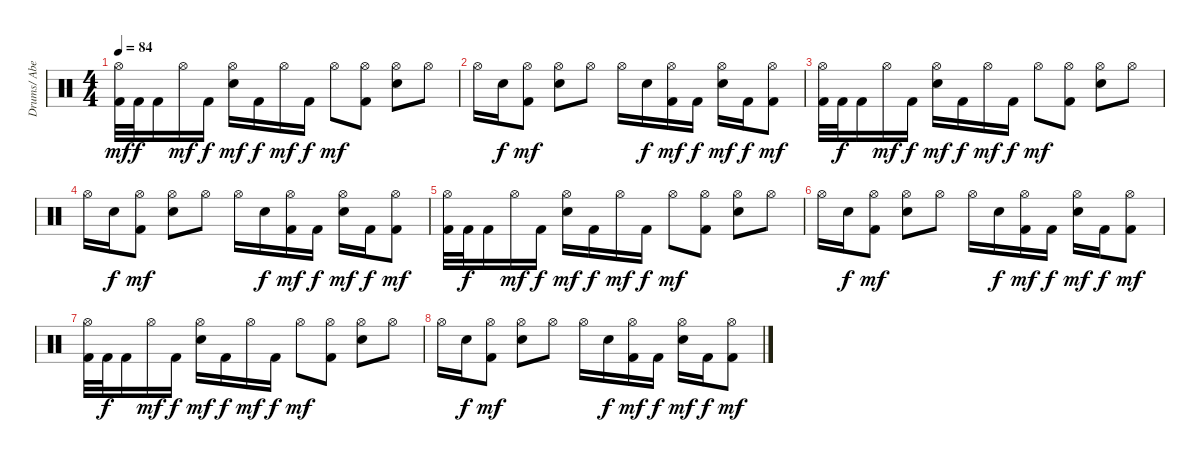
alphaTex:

\track ("Drums/ Abe Cunningham" "Drums/ Abe") {instrument percussion}
\staff {score}
\articulation defaults
\ts (4 4)
\tempo 84
\clef neutral
\ks c
("Hi-Hat (open)" "Kick (hit) 2").32{dy mf volume 10} "Kick (hit) 2".32{dy f} "Kick (hit) 2".16 "Hi-Hat (open)".16{dy mf} "Kick (hit) 2".16{dy f} ("Hi-Hat (open)" "Electric Snare (hit)").16{dy mf} "Kick (hit) 2".16{dy f} "Hi-Hat (open)".16{dy mf} "Kick (hit) 2".16{dy f} "Hi-Hat (open)".8{dy mf} ("Hi-Hat (open)" "Kick (hit) 2").8 ("Hi-Hat (open)" "Electric Snare (hit)").8 "Hi-Hat (open)".8 |
"Hi-Hat (open)".16 "Electric Snare (hit)".16{dy f} ("Hi-Hat (open)" "Kick (hit) 2").8{dy mf} ("Hi-Hat (open)" "Electric Snare (hit)").8 "Hi-Hat (open)".8 "Hi-Hat (open)".16 "Electric Snare (hit)".16{dy f} ("Hi-Hat (open)" "Kick (hit) 2").16{dy mf} "Kick (hit) 2".16{dy f} ("Hi-Hat (open)" "Electric Snare (hit)").16{dy mf} "Kick (hit) 2".16{dy f} ("Hi-Hat (open)" "Kick (hit) 2").8{dy mf} |
("Hi-Hat (open)" "Kick (hit) 2").32{volume 6} "Kick (hit) 2".32{dy f} "Kick (hit) 2".16 "Hi-Hat (open)".16{dy mf} "Kick (hit) 2".16{dy f} ("Hi-Hat (open)" "Electric Snare (hit)").16{dy mf} "Kick (hit) 2".16{dy f} "Hi-Hat (open)".16{dy mf} "Kick (hit) 2".16{dy f} "Hi-Hat (open)".8{dy mf} ("Hi-Hat (open)" "Kick (hit) 2").8 ("Hi-Hat (open)" "Electric Snare (hit)").8 "Hi-Hat (open)".8 |
"Hi-Hat (open)".16 "Electric Snare (hit)".16{dy f} ("Hi-Hat (open)" "Kick (hit) 2").8{dy mf} ("Hi-Hat (open)" "Electric Snare (hit)").8 "Hi-Hat (open)".8 "Hi-Hat (open)".16 "Electric Snare (hit)".16{dy f} ("Hi-Hat (open)" "Kick (hit) 2").16{dy mf} "Kick (hit) 2".16{dy f} ("Hi-Hat (open)" "Electric Snare (hit)").16{dy mf} "Kick (hit) 2".16{dy f} ("Hi-Hat (open)" "Kick (hit) 2").8{dy mf} |
("Hi-Hat (open)" "Kick (hit) 2").32{volume 3} "Kick (hit) 2".32{dy f} "Kick (hit) 2".16 "Hi-Hat (open)".16{dy mf} "Kick (hit) 2".16{dy f} ("Hi-Hat (open)" "Electric Snare (hit)").16{dy mf} "Kick (hit) 2".16{dy f} "Hi-Hat (open)".16{dy mf} "Kick (hit) 2".16{dy f} "Hi-Hat (open)".8{dy mf} ("Hi-Hat (open)" "Kick (hit) 2").8 ("Hi-Hat (open)" "Electric Snare (hit)").8 "Hi-Hat (open)".8 |
"Hi-Hat (open)".16 "Electric Snare (hit)".16{dy f} ("Hi-Hat (open)" "Kick (hit) 2").8{dy mf} ("Hi-Hat (open)" "Electric Snare (hit)").8 "Hi-Hat (open)".8 "Hi-Hat (open)".16 "Electric Snare (hit)".16{dy f} ("Hi-Hat (open)" "Kick (hit) 2").16{dy mf} "Kick (hit) 2".16{dy f} ("Hi-Hat (open)" "Electric Snare (hit)").16{dy mf} "Kick (hit) 2".16{dy f} ("Hi-Hat (open)" "Kick (hit) 2").8{dy mf} |
("Hi-Hat (open)" "Kick (hit) 2").32{volume 0} "Kick (hit) 2".32{dy f} "Kick (hit) 2".16 "Hi-Hat (open)".16{dy mf} "Kick (hit) 2".16{dy f} ("Hi-Hat (open)" "Electric Snare (hit)").16{dy mf} "Kick (hit) 2".16{dy f} "Hi-Hat (open)".16{dy mf} "Kick (hit) 2".16{dy f} "Hi-Hat (open)".8{dy mf} ("Hi-Hat (open)" "Kick (hit) 2").8 ("Hi-Hat (open)" "Electric Snare (hit)").8 "Hi-Hat (open)".8 |
"Hi-Hat (open)".16 "Electric Snare (hit)".16{dy f} ("Hi-Hat (open)" "Kick (hit) 2").8{dy mf} ("Hi-Hat (open)" "Electric Snare (hit)").8 "Hi-Hat (open)".8 "Hi-Hat (open)".16 "Electric Snare (hit)".16{dy f} ("Hi-Hat (open)" "Kick (hit) 2").16{dy mf} "Kick (hit) 2".16{dy f} ("Hi-Hat (open)" "Electric Snare (hit)").16{dy mf} "Kick (hit) 2".16{dy f} ("Hi-Hat (open)" "Kick (hit) 2").8{dy mf}
